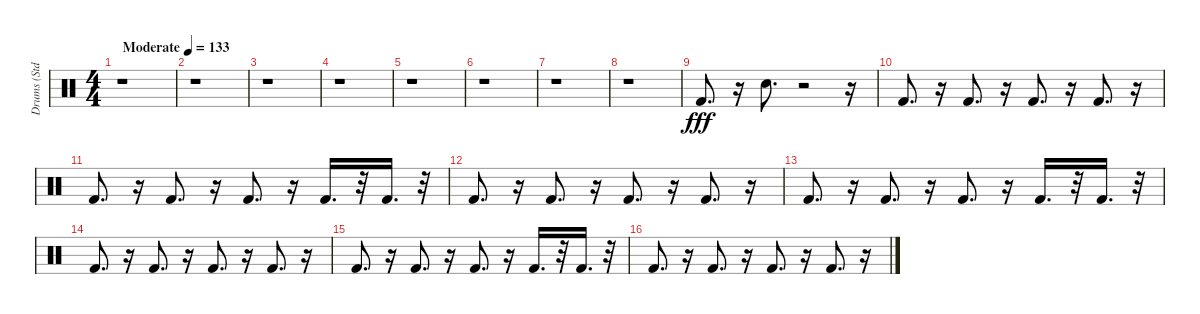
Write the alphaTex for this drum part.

\track ("Drums (Std.)" "Drums (Std") {instrument percussion}
\staff {score}
\articulation defaults
\ts (4 4)
\tempo (133 "Moderate")
\clef neutral
\ks c
r.1{dy fff} |
r.1 |
r.1 |
r.1 |
r.1 |
r.1 |
r.1 |
r.1 |
"Kick (hit) 2".8{d} r.16 "Hand Clap (hit)".8{d} r.2 r.16 |
"Kick (hit) 2".8{d} r.16 "Kick (hit) 2".8{d} r.16 "Kick (hit) 2".8{d} r.16 "Kick (hit) 2".8{d} r.16 |
"Kick (hit) 2".8{d} r.16 "Kick (hit) 2".8{d} r.16 "Kick (hit) 2".8{d} r.16 "Kick (hit) 2".16{d} r.32 "Kick (hit) 2".16{d} r.32 |
"Kick (hit) 2".8{d} r.16 "Kick (hit) 2".8{d} r.16 "Kick (hit) 2".8{d} r.16 "Kick (hit) 2".8{d} r.16 |
"Kick (hit) 2".8{d} r.16 "Kick (hit) 2".8{d} r.16 "Kick (hit) 2".8{d} r.16 "Kick (hit) 2".16{d} r.32 "Kick (hit) 2".16{d} r.32 |
"Kick (hit) 2".8{d} r.16 "Kick (hit) 2".8{d} r.16 "Kick (hit) 2".8{d} r.16 "Kick (hit) 2".8{d} r.16 |
"Kick (hit) 2".8{d} r.16 "Kick (hit) 2".8{d} r.16 "Kick (hit) 2".8{d} r.16 "Kick (hit) 2".16{d} r.32 "Kick (hit) 2".16{d} r.32 |
"Kick (hit) 2".8{d} r.16 "Kick (hit) 2".8{d} r.16 "Kick (hit) 2".8{d} r.16 "Kick (hit) 2".8{d} r.16
